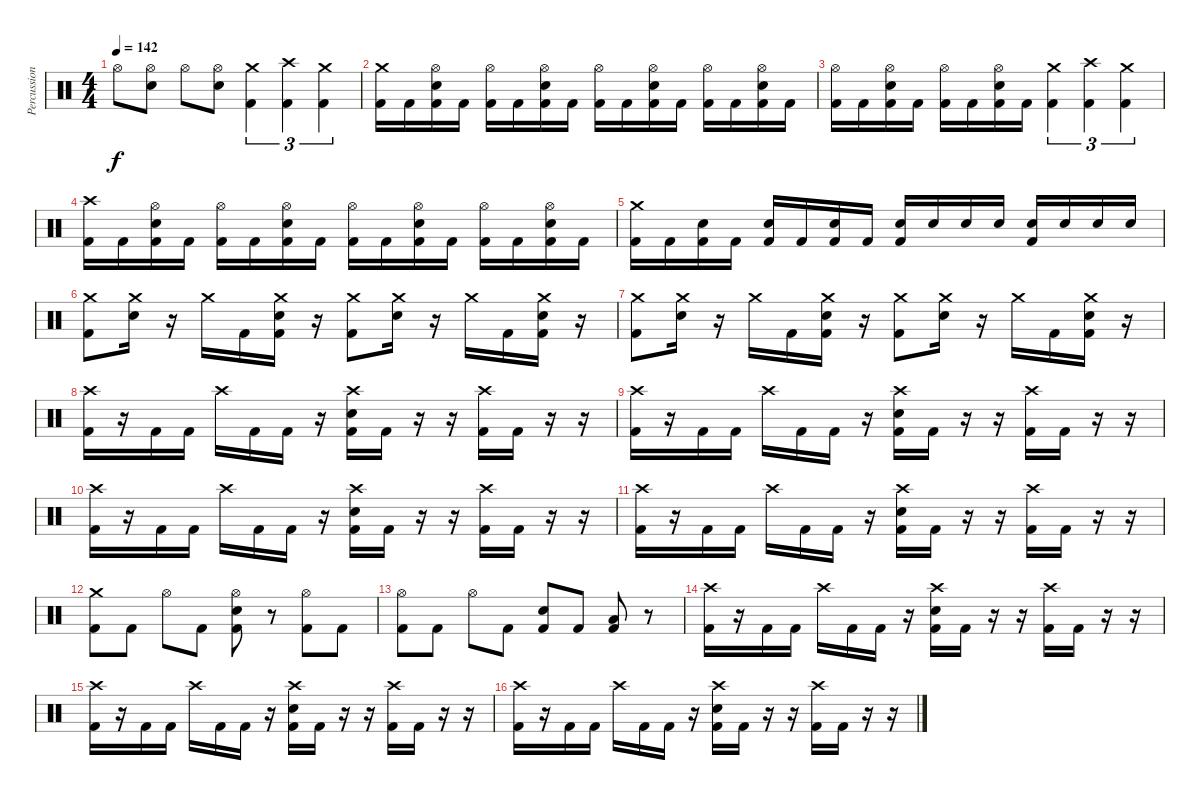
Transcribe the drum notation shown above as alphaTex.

\track ("Percussion" "Percussion") {instrument percussion}
\staff {score}
\articulation defaults
\ts (4 4)
\tempo 142
\clef neutral
\ks c "Hi-Hat (open)".8{dy f}
("Hi-Hat (open)" "Snare (hit) 2").8 "Hi-Hat (open)".8 ("Hi-Hat (open)" "Snare (hit) 2").8 ("Crash medium (hit)" "Kick (hit) 2").4{tu (3 2)} ("Crash high (hit)" "Kick (hit) 2").4{tu (3 2)} ("Crash medium (hit)" "Kick (hit) 2").4{tu (3 2)} |
("Crash medium (hit)" "Kick (hit) 2").16 "Kick (hit) 2".16 ("Hi-Hat (open)" "Snare (hit) 2" "Kick (hit) 2").16 "Kick (hit) 2".16 ("Hi-Hat (open)" "Kick (hit) 2").16 "Kick (hit) 2".16 ("Hi-Hat (open)" "Snare (hit) 2" "Kick (hit) 2").16 "Kick (hit) 2".16 ("Hi-Hat (open)" "Kick (hit) 2").16 "Kick (hit) 2".16 ("Hi-Hat (open)" "Snare (hit) 2" "Kick (hit) 2").16 "Kick (hit) 2".16 ("Hi-Hat (open)" "Kick (hit) 2").16 "Kick (hit) 2".16 ("Hi-Hat (open)" "Snare (hit) 2" "Kick (hit) 2").16 "Kick (hit) 2".16 |
("Hi-Hat (open)" "Kick (hit) 2").16 "Kick (hit) 2".16 ("Hi-Hat (open)" "Snare (hit) 2" "Kick (hit) 2").16 "Kick (hit) 2".16 ("Hi-Hat (open)" "Kick (hit) 2").16 "Kick (hit) 2".16 ("Hi-Hat (open)" "Snare (hit) 2" "Kick (hit) 2").16 "Kick (hit) 2".16 ("Crash medium (hit)" "Kick (hit) 2").4{tu (3 2)} ("Crash high (hit)" "Kick (hit) 2").4{tu (3 2)} ("Crash medium (hit)" "Kick (hit) 2").4{tu (3 2)} |
("Crash high (hit)" "Kick (hit) 2").16 "Kick (hit) 2".16 ("Hi-Hat (open)" "Snare (hit) 2" "Kick (hit) 2").16 "Kick (hit) 2".16 ("Hi-Hat (open)" "Kick (hit) 2").16 "Kick (hit) 2".16 ("Hi-Hat (open)" "Snare (hit) 2" "Kick (hit) 2").16 "Kick (hit) 2".16 ("Hi-Hat (open)" "Kick (hit) 2").16 "Kick (hit) 2".16 ("Hi-Hat (open)" "Snare (hit) 2" "Kick (hit) 2").16 "Kick (hit) 2".16 ("Hi-Hat (open)" "Kick (hit) 2").16 "Kick (hit) 2".16 ("Hi-Hat (open)" "Snare (hit) 2" "Kick (hit) 2").16 "Kick (hit) 2".16 |
("Crash medium (hit)" "Kick (hit) 2").16 "Kick (hit) 2".16 ("Snare (hit) 2" "Kick (hit) 2").16 "Kick (hit) 2".16 ("Snare (hit) 2" "Kick (hit) 2").16 "Kick (hit) 2".16 ("Snare (hit) 2" "Kick (hit) 2").16 "Kick (hit) 2".16 ("Snare (hit) 2" "Kick (hit) 2").16 "Snare (hit) 2".16 "Snare (hit) 2".16 "Snare (hit) 2".16 ("Snare (hit) 2" "Kick (hit) 2").16 "Snare (hit) 2".16 "Snare (hit) 2".16 "Snare (hit) 2".16 |
("Crash medium (hit)" "Kick (hit) 2").8 ("Crash medium (hit)" "Snare (hit) 2").16 r.16 "Crash medium (hit)".16 "Kick (hit) 2".16 ("Crash medium (hit)" "Snare (hit) 2" "Kick (hit) 2").16 r.16 ("Crash medium (hit)" "Kick (hit) 2").8 ("Crash medium (hit)" "Snare (hit) 2").16 r.16 "Crash medium (hit)".16 "Kick (hit) 2".16 ("Crash medium (hit)" "Snare (hit) 2" "Kick (hit) 2").16 r.16 |
("Crash medium (hit)" "Kick (hit) 2").8 ("Crash medium (hit)" "Snare (hit) 2").16 r.16 "Crash medium (hit)".16 "Kick (hit) 2".16 ("Crash medium (hit)" "Snare (hit) 2" "Kick (hit) 2").16 r.16 ("Crash medium (hit)" "Kick (hit) 2").8 ("Crash medium (hit)" "Snare (hit) 2").16 r.16 "Crash medium (hit)".16 "Kick (hit) 2".16 ("Crash medium (hit)" "Snare (hit) 2" "Kick (hit) 2").16 r.16 |
("Crash high (hit)" "Kick (hit) 2").16 r.16 "Kick (hit) 2".16 "Kick (hit) 2".16 "Crash high (hit)".16 "Kick (hit) 2".16 "Kick (hit) 2".16 r.16 ("Crash high (hit)" "Snare (hit) 2" "Kick (hit) 2").16 "Kick (hit) 2".16 r.16 r.16 ("Crash high (hit)" "Kick (hit) 2").16 "Kick (hit) 2".16 r.16 r.16 |
("Crash high (hit)" "Kick (hit) 2").16 r.16 "Kick (hit) 2".16 "Kick (hit) 2".16 "Crash high (hit)".16 "Kick (hit) 2".16 "Kick (hit) 2".16 r.16 ("Crash high (hit)" "Snare (hit) 2" "Kick (hit) 2").16 "Kick (hit) 2".16 r.16 r.16 ("Crash high (hit)" "Kick (hit) 2").16 "Kick (hit) 2".16 r.16 r.16 |
("Crash high (hit)" "Kick (hit) 2").16 r.16 "Kick (hit) 2".16 "Kick (hit) 2".16 "Crash high (hit)".16 "Kick (hit) 2".16 "Kick (hit) 2".16 r.16 ("Crash high (hit)" "Snare (hit) 2" "Kick (hit) 2").16 "Kick (hit) 2".16 r.16 r.16 ("Crash high (hit)" "Kick (hit) 2").16 "Kick (hit) 2".16 r.16 r.16 |
("Crash high (hit)" "Kick (hit) 2").16 r.16 "Kick (hit) 2".16 "Kick (hit) 2".16 "Crash high (hit)".16 "Kick (hit) 2".16 "Kick (hit) 2".16 r.16 ("Crash high (hit)" "Snare (hit) 2" "Kick (hit) 2").16 "Kick (hit) 2".16 r.16 r.16 ("Crash high (hit)" "Kick (hit) 2").16 "Kick (hit) 2".16 r.16 r.16 |
("Crash medium (hit)" "Kick (hit) 2").8 "Kick (hit) 2".8 "Hi-Hat (open)".8 "Kick (hit) 2".8 ("Hi-Hat (open)" "Snare (hit) 2" "Kick (hit) 2").8 r.8 ("Hi-Hat (open)" "Kick (hit) 2").8 "Kick (hit) 2".8 |
("Hi-Hat (open)" "Kick (hit) 2").8 "Kick (hit) 2".8 "Hi-Hat (open)".8 "Kick (hit) 2".8 ("Snare (hit) 2" "Kick (hit) 2").8 "Kick (hit) 2".8 ("Low Floor Tom (hit)" "Kick (hit) 2").8 r.8 |
("Crash high (hit)" "Kick (hit) 2").16 r.16 "Kick (hit) 2".16 "Kick (hit) 2".16 "Crash high (hit)".16 "Kick (hit) 2".16 "Kick (hit) 2".16 r.16 ("Crash high (hit)" "Snare (hit) 2" "Kick (hit) 2").16 "Kick (hit) 2".16 r.16 r.16 ("Crash high (hit)" "Kick (hit) 2").16 "Kick (hit) 2".16 r.16 r.16 |
("Crash high (hit)" "Kick (hit) 2").16 r.16 "Kick (hit) 2".16 "Kick (hit) 2".16 "Crash high (hit)".16 "Kick (hit) 2".16 "Kick (hit) 2".16 r.16 ("Crash high (hit)" "Snare (hit) 2" "Kick (hit) 2").16 "Kick (hit) 2".16 r.16 r.16 ("Crash high (hit)" "Kick (hit) 2").16 "Kick (hit) 2".16 r.16 r.16 |
("Crash high (hit)" "Kick (hit) 2").16 r.16 "Kick (hit) 2".16 "Kick (hit) 2".16 "Crash high (hit)".16 "Kick (hit) 2".16 "Kick (hit) 2".16 r.16 ("Crash high (hit)" "Snare (hit) 2" "Kick (hit) 2").16 "Kick (hit) 2".16 r.16 r.16 ("Crash high (hit)" "Kick (hit) 2").16 "Kick (hit) 2".16 r.16 r.16
